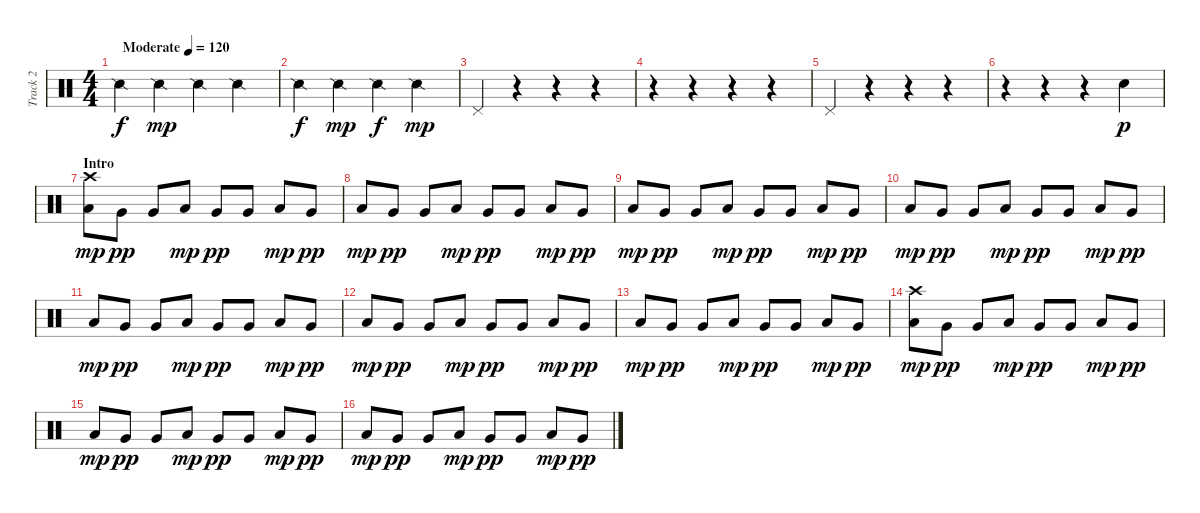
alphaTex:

\track ("Track 2" "Track 2") {instrument percussion}
\staff {score}
\articulation defaults
\ts (4 4)
\tempo (120 "Moderate")
\clef neutral
\ks c "Snare (side stick) 2".4{dy f} "Snare (side stick) 2".4{dy mp} "Snare (side stick) 2".4 "Snare (side stick) 2".4
|
"Snare (side stick) 2".4{dy f} "Snare (side stick) 2".4{dy mp} "Snare (side stick) 2".4{dy f} "Snare (side stick) 2".4{dy mp} |
"Pedal Hi-Hat (hit)".4 r.4 r.4 r.4 |
r.4 r.4 r.4 r.4 |
"Pedal Hi-Hat (hit)".4 r.4 r.4 r.4 |
r.4 r.4 r.4 "Electric Snare (hit)".4{dy p} |
\section ("" "Intro")
("Low Tom (hit)" "Crash high (hit)").8{dy mp} "Very Low Tom (hit)".8{dy pp} "Very Low Tom (hit)".8 "Low Tom (hit)".8{dy mp} "Very Low Tom (hit)".8{dy pp} "Very Low Tom (hit)".8 "Low Tom (hit)".8{dy mp} "Very Low Tom (hit)".8{dy pp} |
"Low Tom (hit)".8{dy mp} "Very Low Tom (hit)".8{dy pp} "Very Low Tom (hit)".8 "Low Tom (hit)".8{dy mp} "Very Low Tom (hit)".8{dy pp} "Very Low Tom (hit)".8 "Low Tom (hit)".8{dy mp} "Very Low Tom (hit)".8{dy pp} |
"Low Tom (hit)".8{dy mp} "Very Low Tom (hit)".8{dy pp} "Very Low Tom (hit)".8 "Low Tom (hit)".8{dy mp} "Very Low Tom (hit)".8{dy pp} "Very Low Tom (hit)".8 "Low Tom (hit)".8{dy mp} "Very Low Tom (hit)".8{dy pp} |
"Low Tom (hit)".8{dy mp} "Very Low Tom (hit)".8{dy pp} "Very Low Tom (hit)".8 "Low Tom (hit)".8{dy mp} "Very Low Tom (hit)".8{dy pp} "Very Low Tom (hit)".8 "Low Tom (hit)".8{dy mp} "Very Low Tom (hit)".8{dy pp} |
"Low Tom (hit)".8{dy mp} "Very Low Tom (hit)".8{dy pp} "Very Low Tom (hit)".8 "Low Tom (hit)".8{dy mp} "Very Low Tom (hit)".8{dy pp} "Very Low Tom (hit)".8 "Low Tom (hit)".8{dy mp} "Very Low Tom (hit)".8{dy pp} |
"Low Tom (hit)".8{dy mp} "Very Low Tom (hit)".8{dy pp} "Very Low Tom (hit)".8 "Low Tom (hit)".8{dy mp} "Very Low Tom (hit)".8{dy pp} "Very Low Tom (hit)".8 "Low Tom (hit)".8{dy mp} "Very Low Tom (hit)".8{dy pp} |
"Low Tom (hit)".8{dy mp} "Very Low Tom (hit)".8{dy pp} "Very Low Tom (hit)".8 "Low Tom (hit)".8{dy mp} "Very Low Tom (hit)".8{dy pp} "Very Low Tom (hit)".8 "Low Tom (hit)".8{dy mp} "Very Low Tom (hit)".8{dy pp} |
("Low Tom (hit)" "Crash high (hit)").8{dy mp} "Very Low Tom (hit)".8{dy pp} "Very Low Tom (hit)".8 "Low Tom (hit)".8{dy mp} "Very Low Tom (hit)".8{dy pp} "Very Low Tom (hit)".8 "Low Tom (hit)".8{dy mp} "Very Low Tom (hit)".8{dy pp} |
"Low Tom (hit)".8{dy mp} "Very Low Tom (hit)".8{dy pp} "Very Low Tom (hit)".8 "Low Tom (hit)".8{dy mp} "Very Low Tom (hit)".8{dy pp} "Very Low Tom (hit)".8 "Low Tom (hit)".8{dy mp} "Very Low Tom (hit)".8{dy pp} |
"Low Tom (hit)".8{dy mp} "Very Low Tom (hit)".8{dy pp} "Very Low Tom (hit)".8 "Low Tom (hit)".8{dy mp} "Very Low Tom (hit)".8{dy pp} "Very Low Tom (hit)".8 "Low Tom (hit)".8{dy mp} "Very Low Tom (hit)".8{dy pp}
